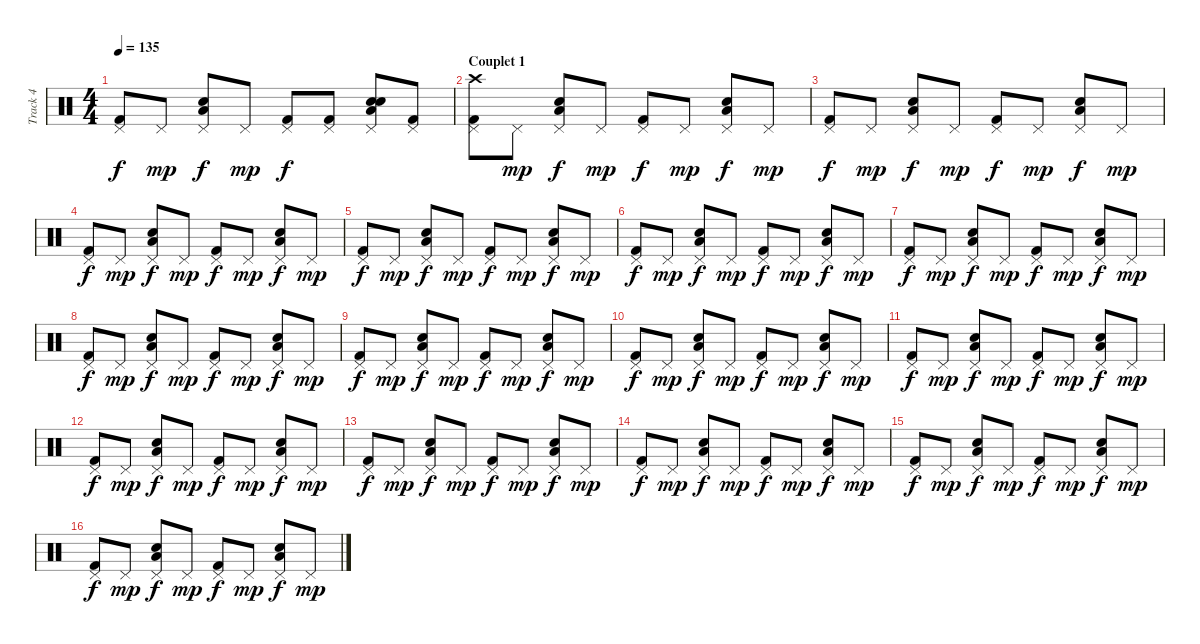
\track ("Track 4" "Track 4") {instrument percussion}
\staff {score}
\articulation defaults
\ts (4 4)
\tempo 135
\clef neutral
\ks c
("Pedal Hi-Hat (hit)" "Kick (hit) 2").8{dy f} "Pedal Hi-Hat (hit)".8{dy mp} ("Pedal Hi-Hat (hit)" "Low Tom (hit)" "Electric Snare (hit)").8{dy f} "Pedal Hi-Hat (hit)".8{dy mp} ("Pedal Hi-Hat (hit)" "Kick (hit) 2").8{dy f} ("Pedal Hi-Hat (hit)" "Kick (hit) 2").8 ("Pedal Hi-Hat (hit)" "Low Tom (hit)" "Electric Snare (hit)" "Snare (hit) 2").8 ("Pedal Hi-Hat (hit)" "Kick (hit) 2").8 |
\section ("" "Couplet 1")
("Pedal Hi-Hat (hit)" "Kick (hit) 2" "Crash high (hit)").8 "Pedal Hi-Hat (hit)".8{dy mp} ("Pedal Hi-Hat (hit)" "Low Tom (hit)" "Electric Snare (hit)").8{dy f} "Pedal Hi-Hat (hit)".8{dy mp} ("Pedal Hi-Hat (hit)" "Kick (hit) 2").8{dy f} "Pedal Hi-Hat (hit)".8{dy mp} ("Pedal Hi-Hat (hit)" "Low Tom (hit)" "Electric Snare (hit)").8{dy f} "Pedal Hi-Hat (hit)".8{dy mp} |
("Pedal Hi-Hat (hit)" "Kick (hit) 2").8{dy f} "Pedal Hi-Hat (hit)".8{dy mp} ("Pedal Hi-Hat (hit)" "Low Tom (hit)" "Electric Snare (hit)").8{dy f} "Pedal Hi-Hat (hit)".8{dy mp} ("Pedal Hi-Hat (hit)" "Kick (hit) 2").8{dy f} "Pedal Hi-Hat (hit)".8{dy mp} ("Pedal Hi-Hat (hit)" "Low Tom (hit)" "Electric Snare (hit)").8{dy f} "Pedal Hi-Hat (hit)".8{dy mp} |
("Pedal Hi-Hat (hit)" "Kick (hit) 2").8{dy f} "Pedal Hi-Hat (hit)".8{dy mp} ("Pedal Hi-Hat (hit)" "Low Tom (hit)" "Electric Snare (hit)").8{dy f} "Pedal Hi-Hat (hit)".8{dy mp} ("Pedal Hi-Hat (hit)" "Kick (hit) 2").8{dy f} "Pedal Hi-Hat (hit)".8{dy mp} ("Pedal Hi-Hat (hit)" "Low Tom (hit)" "Electric Snare (hit)").8{dy f} "Pedal Hi-Hat (hit)".8{dy mp} |
("Pedal Hi-Hat (hit)" "Kick (hit) 2").8{dy f} "Pedal Hi-Hat (hit)".8{dy mp} ("Pedal Hi-Hat (hit)" "Low Tom (hit)" "Electric Snare (hit)").8{dy f} "Pedal Hi-Hat (hit)".8{dy mp} ("Pedal Hi-Hat (hit)" "Kick (hit) 2").8{dy f} "Pedal Hi-Hat (hit)".8{dy mp} ("Pedal Hi-Hat (hit)" "Low Tom (hit)" "Electric Snare (hit)").8{dy f} "Pedal Hi-Hat (hit)".8{dy mp} |
("Pedal Hi-Hat (hit)" "Kick (hit) 2").8{dy f} "Pedal Hi-Hat (hit)".8{dy mp} ("Pedal Hi-Hat (hit)" "Low Tom (hit)" "Electric Snare (hit)").8{dy f} "Pedal Hi-Hat (hit)".8{dy mp} ("Pedal Hi-Hat (hit)" "Kick (hit) 2").8{dy f} "Pedal Hi-Hat (hit)".8{dy mp} ("Pedal Hi-Hat (hit)" "Low Tom (hit)" "Electric Snare (hit)").8{dy f} "Pedal Hi-Hat (hit)".8{dy mp} |
("Pedal Hi-Hat (hit)" "Kick (hit) 2").8{dy f} "Pedal Hi-Hat (hit)".8{dy mp} ("Pedal Hi-Hat (hit)" "Low Tom (hit)" "Electric Snare (hit)").8{dy f} "Pedal Hi-Hat (hit)".8{dy mp} ("Pedal Hi-Hat (hit)" "Kick (hit) 2").8{dy f} "Pedal Hi-Hat (hit)".8{dy mp} ("Pedal Hi-Hat (hit)" "Low Tom (hit)" "Electric Snare (hit)").8{dy f} "Pedal Hi-Hat (hit)".8{dy mp} |
("Pedal Hi-Hat (hit)" "Kick (hit) 2").8{dy f} "Pedal Hi-Hat (hit)".8{dy mp} ("Pedal Hi-Hat (hit)" "Low Tom (hit)" "Electric Snare (hit)").8{dy f} "Pedal Hi-Hat (hit)".8{dy mp} ("Pedal Hi-Hat (hit)" "Kick (hit) 2").8{dy f} "Pedal Hi-Hat (hit)".8{dy mp} ("Pedal Hi-Hat (hit)" "Low Tom (hit)" "Electric Snare (hit)").8{dy f} "Pedal Hi-Hat (hit)".8{dy mp} |
("Pedal Hi-Hat (hit)" "Kick (hit) 2").8{dy f} "Pedal Hi-Hat (hit)".8{dy mp} ("Pedal Hi-Hat (hit)" "Low Tom (hit)" "Electric Snare (hit)").8{dy f} "Pedal Hi-Hat (hit)".8{dy mp} ("Pedal Hi-Hat (hit)" "Kick (hit) 2").8{dy f} "Pedal Hi-Hat (hit)".8{dy mp} ("Pedal Hi-Hat (hit)" "Low Tom (hit)" "Electric Snare (hit)").8{dy f} "Pedal Hi-Hat (hit)".8{dy mp} |
("Pedal Hi-Hat (hit)" "Kick (hit) 2").8{dy f} "Pedal Hi-Hat (hit)".8{dy mp} ("Pedal Hi-Hat (hit)" "Low Tom (hit)" "Electric Snare (hit)").8{dy f} "Pedal Hi-Hat (hit)".8{dy mp} ("Pedal Hi-Hat (hit)" "Kick (hit) 2").8{dy f} "Pedal Hi-Hat (hit)".8{dy mp} ("Pedal Hi-Hat (hit)" "Low Tom (hit)" "Electric Snare (hit)").8{dy f} "Pedal Hi-Hat (hit)".8{dy mp} |
("Pedal Hi-Hat (hit)" "Kick (hit) 2").8{dy f} "Pedal Hi-Hat (hit)".8{dy mp} ("Pedal Hi-Hat (hit)" "Low Tom (hit)" "Electric Snare (hit)").8{dy f} "Pedal Hi-Hat (hit)".8{dy mp} ("Pedal Hi-Hat (hit)" "Kick (hit) 2").8{dy f} "Pedal Hi-Hat (hit)".8{dy mp} ("Pedal Hi-Hat (hit)" "Low Tom (hit)" "Electric Snare (hit)").8{dy f} "Pedal Hi-Hat (hit)".8{dy mp} |
("Pedal Hi-Hat (hit)" "Kick (hit) 2").8{dy f} "Pedal Hi-Hat (hit)".8{dy mp} ("Pedal Hi-Hat (hit)" "Low Tom (hit)" "Electric Snare (hit)").8{dy f} "Pedal Hi-Hat (hit)".8{dy mp} ("Pedal Hi-Hat (hit)" "Kick (hit) 2").8{dy f} "Pedal Hi-Hat (hit)".8{dy mp} ("Pedal Hi-Hat (hit)" "Low Tom (hit)" "Electric Snare (hit)").8{dy f} "Pedal Hi-Hat (hit)".8{dy mp} |
("Pedal Hi-Hat (hit)" "Kick (hit) 2").8{dy f} "Pedal Hi-Hat (hit)".8{dy mp} ("Pedal Hi-Hat (hit)" "Low Tom (hit)" "Electric Snare (hit)").8{dy f} "Pedal Hi-Hat (hit)".8{dy mp} ("Pedal Hi-Hat (hit)" "Kick (hit) 2").8{dy f} "Pedal Hi-Hat (hit)".8{dy mp} ("Pedal Hi-Hat (hit)" "Low Tom (hit)" "Electric Snare (hit)").8{dy f} "Pedal Hi-Hat (hit)".8{dy mp} |
("Pedal Hi-Hat (hit)" "Kick (hit) 2").8{dy f} "Pedal Hi-Hat (hit)".8{dy mp} ("Pedal Hi-Hat (hit)" "Low Tom (hit)" "Electric Snare (hit)").8{dy f} "Pedal Hi-Hat (hit)".8{dy mp} ("Pedal Hi-Hat (hit)" "Kick (hit) 2").8{dy f} "Pedal Hi-Hat (hit)".8{dy mp} ("Pedal Hi-Hat (hit)" "Low Tom (hit)" "Electric Snare (hit)").8{dy f} "Pedal Hi-Hat (hit)".8{dy mp} |
("Pedal Hi-Hat (hit)" "Kick (hit) 2").8{dy f} "Pedal Hi-Hat (hit)".8{dy mp} ("Pedal Hi-Hat (hit)" "Low Tom (hit)" "Electric Snare (hit)").8{dy f} "Pedal Hi-Hat (hit)".8{dy mp} ("Pedal Hi-Hat (hit)" "Kick (hit) 2").8{dy f} "Pedal Hi-Hat (hit)".8{dy mp} ("Pedal Hi-Hat (hit)" "Low Tom (hit)" "Electric Snare (hit)").8{dy f} "Pedal Hi-Hat (hit)".8{dy mp} |
("Pedal Hi-Hat (hit)" "Kick (hit) 2").8{dy f} "Pedal Hi-Hat (hit)".8{dy mp} ("Pedal Hi-Hat (hit)" "Low Tom (hit)" "Electric Snare (hit)").8{dy f} "Pedal Hi-Hat (hit)".8{dy mp} ("Pedal Hi-Hat (hit)" "Kick (hit) 2").8{dy f} "Pedal Hi-Hat (hit)".8{dy mp} ("Pedal Hi-Hat (hit)" "Low Tom (hit)" "Electric Snare (hit)").8{dy f} "Pedal Hi-Hat (hit)".8{dy mp}
